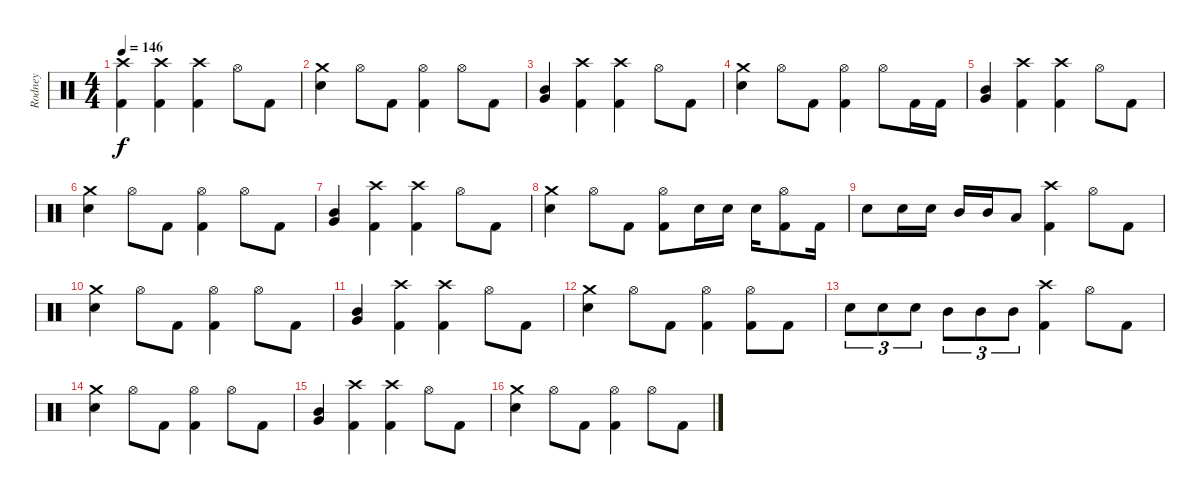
\track ("Rodney" "Rodney") {instrument percussion}
\staff {score}
\articulation defaults
\ts (4 4)
\tempo 146
\tempo 134
\tempo 146
\clef neutral
\ks c
("Crash high (hit)" "Kick (hit) 2").4{dy f} ("Crash high (hit)" "Kick (hit) 2").4 ("Crash high (hit)" "Kick (hit) 2").4 "Hi-Hat (open)".8 "Kick (hit) 2".8 |
("Crash medium (hit)" "Snare (hit) 2").4 "Hi-Hat (open)".8 "Kick (hit) 2".8 ("Hi-Hat (open)" "Kick (hit) 2").4 "Hi-Hat (open)".8 "Kick (hit) 2".8 |
("Mid Tom (hit)" "Very Low Tom (hit)").4 ("Crash high (hit)" "Kick (hit) 2").4 ("Crash high (hit)" "Kick (hit) 2").4 "Hi-Hat (open)".8 "Kick (hit) 2".8 |
("Crash medium (hit)" "Snare (hit) 2").4 "Hi-Hat (open)".8 "Kick (hit) 2".8 ("Hi-Hat (open)" "Kick (hit) 2").4 "Hi-Hat (open)".8 "Kick (hit) 2".16 "Kick (hit) 2".16 |
("Mid Tom (hit)" "Very Low Tom (hit)").4 ("Crash high (hit)" "Kick (hit) 2").4 ("Crash high (hit)" "Kick (hit) 2").4 "Hi-Hat (open)".8 "Kick (hit) 2".8 |
("Crash medium (hit)" "Snare (hit) 2").4 "Hi-Hat (open)".8 "Kick (hit) 2".8 ("Hi-Hat (open)" "Kick (hit) 2").4 "Hi-Hat (open)".8 "Kick (hit) 2".8 |
("Mid Tom (hit)" "Very Low Tom (hit)").4 ("Crash high (hit)" "Kick (hit) 2").4 ("Crash high (hit)" "Kick (hit) 2").4 "Hi-Hat (open)".8 "Kick (hit) 2".8 |
("Crash medium (hit)" "Snare (hit) 2").4 "Hi-Hat (open)".8 "Kick (hit) 2".8 ("Hi-Hat (open)" "Kick (hit) 2").8 "Snare (hit) 2".16 "Snare (hit) 2".16 "Snare (hit) 2".16 ("Hi-Hat (open)" "Kick (hit) 2").8 "Kick (hit) 2".16 |
"Snare (hit) 2".8 "Snare (hit) 2".16 "Snare (hit) 2".16 "Mid Tom (hit)".16 "Mid Tom (hit)".16 "Low Tom (hit)".8 ("Crash high (hit)" "Kick (hit) 2").4 "Hi-Hat (open)".8 "Kick (hit) 2".8 |
("Crash medium (hit)" "Snare (hit) 2").4 "Hi-Hat (open)".8 "Kick (hit) 2".8 ("Hi-Hat (open)" "Kick (hit) 2").4 "Hi-Hat (open)".8 "Kick (hit) 2".8 |
("Mid Tom (hit)" "Very Low Tom (hit)").4 ("Crash high (hit)" "Kick (hit) 2").4 ("Crash high (hit)" "Kick (hit) 2").4 "Hi-Hat (open)".8 "Kick (hit) 2".8 |
("Crash medium (hit)" "Snare (hit) 2").4 "Hi-Hat (open)".8 "Kick (hit) 2".8 ("Hi-Hat (open)" "Kick (hit) 2").4 ("Hi-Hat (open)" "Kick (hit) 2").8 "Kick (hit) 2".8 |
"Snare (hit) 2".8{tu (3 2)} "Snare (hit) 2".8{tu (3 2)} "Snare (hit) 2".8{tu (3 2)} "Mid Tom (hit)".8{tu (3 2)} "Mid Tom (hit)".8{tu (3 2)} "Mid Tom (hit)".8{tu (3 2)} ("Crash high (hit)" "Kick (hit) 2").4 "Hi-Hat (open)".8 "Kick (hit) 2".8 |
("Crash medium (hit)" "Snare (hit) 2").4 "Hi-Hat (open)".8 "Kick (hit) 2".8 ("Hi-Hat (open)" "Kick (hit) 2").4 "Hi-Hat (open)".8 "Kick (hit) 2".8 |
("Mid Tom (hit)" "Very Low Tom (hit)").4 ("Crash high (hit)" "Kick (hit) 2").4 ("Crash high (hit)" "Kick (hit) 2").4 "Hi-Hat (open)".8 "Kick (hit) 2".8 |
("Crash medium (hit)" "Snare (hit) 2").4 "Hi-Hat (open)".8 "Kick (hit) 2".8 ("Hi-Hat (open)" "Kick (hit) 2").4 "Hi-Hat (open)".8 "Kick (hit) 2".8
